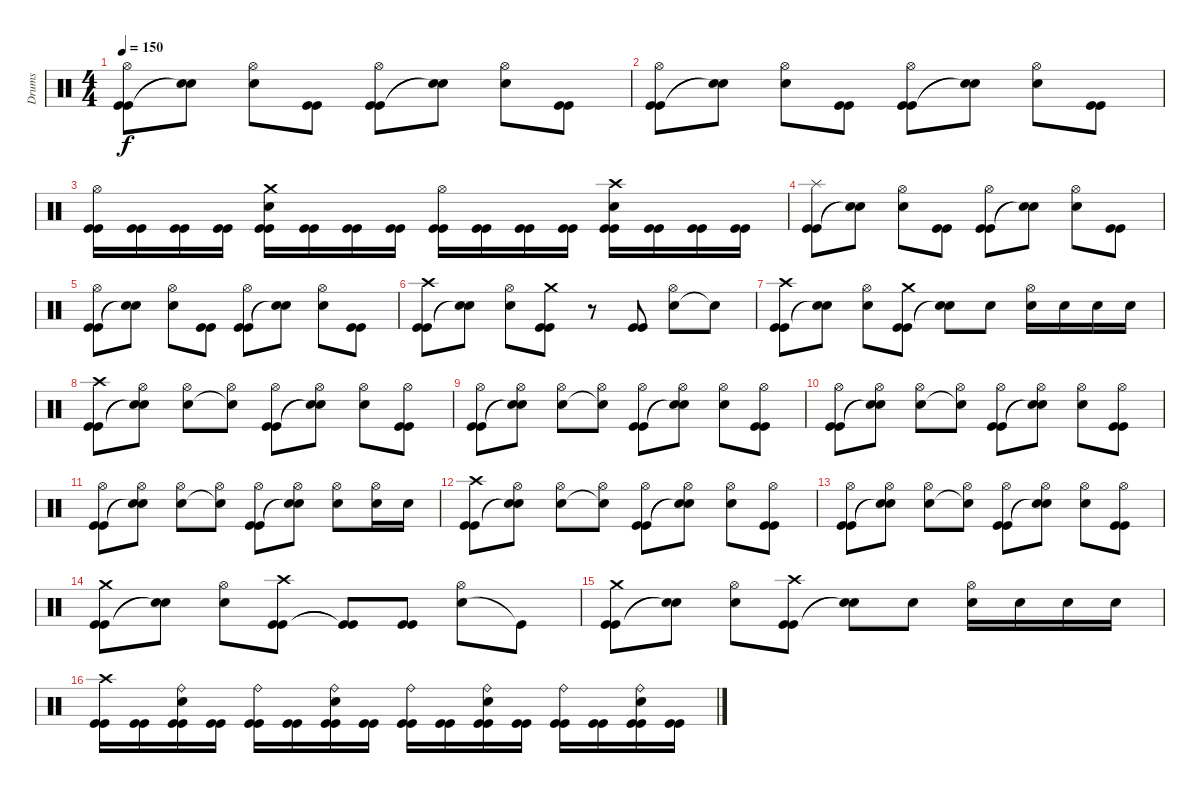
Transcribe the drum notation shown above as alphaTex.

\track ("Drums" "Drums") {instrument percussion}
\staff {score}
\articulation defaults
\ts (4 4)
\tempo 150
\clef neutral
\ks c
("Kick (hit)" "Kick (hit)" "Hi-Hat (open)").8{dy f} ("Snare (hit)"{t} "Snare (hit)"{t}).8 ("Snare (hit) 2" "Hi-Hat (open)").8 ("Kick (hit)" "Kick (hit)").8 ("Kick (hit)" "Kick (hit)" "Hi-Hat (open)").8 ("Snare (hit)"{t} "Snare (hit)"{t}).8 ("Snare (hit) 2" "Hi-Hat (open)").8 ("Kick (hit)" "Kick (hit)").8 |
("Kick (hit)" "Kick (hit)" "Hi-Hat (open)").8 ("Snare (hit)"{t} "Snare (hit)"{t}).8 ("Snare (hit) 2" "Hi-Hat (open)").8 ("Kick (hit)" "Kick (hit)").8 ("Kick (hit)" "Kick (hit)" "Hi-Hat (open)").8 ("Snare (hit)"{t} "Snare (hit)"{t}).8 ("Snare (hit) 2" "Hi-Hat (open)").8 ("Kick (hit)" "Kick (hit)").8 |
("Kick (hit)" "Kick (hit)" "Hi-Hat (open)").16 ("Kick (hit)" "Kick (hit)").16 ("Kick (hit)" "Kick (hit)").16 ("Kick (hit)" "Kick (hit)").16 ("Kick (hit)" "Kick (hit)" "Snare (hit) 2" "Crash medium (hit)").16 ("Kick (hit)" "Kick (hit)").16 ("Kick (hit)" "Kick (hit)").16 ("Kick (hit)" "Kick (hit)").16 ("Kick (hit)" "Kick (hit)" "Hi-Hat (open)").16 ("Kick (hit)" "Kick (hit)").16 ("Kick (hit)" "Kick (hit)").16 ("Kick (hit)" "Kick (hit)").16 ("Kick (hit)" "Kick (hit)" "Snare (hit) 2" "Crash high (hit)").16 ("Kick (hit)" "Kick (hit)").16 ("Kick (hit)" "Kick (hit)").16 ("Kick (hit)" "Kick (hit)").16 |
("Kick (hit)" "Kick (hit)" "Splash (hit)").8 ("Snare (hit)"{t} "Snare (hit)"{t}).8 ("Snare (hit) 2" "Hi-Hat (open)").8 ("Kick (hit)" "Kick (hit)").8 ("Kick (hit)" "Kick (hit)" "Hi-Hat (open)").8 ("Snare (hit)"{t} "Snare (hit)"{t}).8 ("Snare (hit) 2" "Hi-Hat (open)").8 ("Kick (hit)" "Kick (hit)").8 |
("Kick (hit)" "Kick (hit)" "Hi-Hat (open)").8 ("Snare (hit)"{t} "Snare (hit)"{t}).8 ("Snare (hit) 2" "Hi-Hat (open)").8 ("Kick (hit)" "Kick (hit)").8 ("Kick (hit)" "Kick (hit)" "Hi-Hat (open)").8 ("Snare (hit)"{t} "Snare (hit)"{t}).8 ("Snare (hit) 2" "Hi-Hat (open)").8 ("Kick (hit)" "Kick (hit)").8 |
("Kick (hit)" "Kick (hit)" "Crash high (hit)").8 ("Snare (hit)"{t} "Snare (hit)"{t}).8 ("Snare (hit) 2" "Hi-Hat (open)").8 ("Kick (hit)" "Kick (hit)" "Crash medium (hit)").8 r.8 ("Kick (hit)" "Kick (hit)").8 ("Snare (hit) 2" "Hi-Hat (open)").8 "Snare (hit)"{t}.8 |
("Kick (hit)" "Kick (hit)" "Crash high (hit)").8 ("Snare (hit)"{t} "Snare (hit)"{t}).8 ("Snare (hit) 2" "Hi-Hat (open)").8 ("Kick (hit)" "Kick (hit)" "Crash medium (hit)").8 ("Snare (hit)"{t} "Snare (hit)"{t}).8 "Snare (hit) 2".8 ("Snare (hit) 2" "Hi-Hat (open)").16 "Snare (hit) 2".16 "Snare (hit) 2".16 "Snare (hit) 2".16 |
("Kick (hit)" "Kick (hit)" "Crash high (hit)").8 ("Snare (hit)"{t} "Snare (hit)"{t} "Hi-Hat (open)").8 ("Snare (hit) 2" "Hi-Hat (open)").8 ("Snare (hit)"{t} "Hi-Hat (open)").8 ("Kick (hit)" "Kick (hit)" "Hi-Hat (open)").8 ("Snare (hit)"{t} "Snare (hit)"{t} "Hi-Hat (open)").8 ("Snare (hit) 2" "Hi-Hat (open)").8 ("Kick (hit)" "Kick (hit)" "Hi-Hat (open)").8 |
("Kick (hit)" "Kick (hit)" "Hi-Hat (open)").8 ("Snare (hit)"{t} "Snare (hit)"{t} "Hi-Hat (open)").8 ("Snare (hit) 2" "Hi-Hat (open)").8 ("Snare (hit)"{t} "Hi-Hat (open)").8 ("Kick (hit)" "Kick (hit)" "Hi-Hat (open)").8 ("Snare (hit)"{t} "Snare (hit)"{t} "Hi-Hat (open)").8 ("Snare (hit) 2" "Hi-Hat (open)").8 ("Kick (hit)" "Kick (hit)" "Hi-Hat (open)").8 |
("Kick (hit)" "Kick (hit)" "Hi-Hat (open)").8 ("Snare (hit)"{t} "Snare (hit)"{t} "Hi-Hat (open)").8 ("Snare (hit) 2" "Hi-Hat (open)").8 ("Snare (hit)"{t} "Hi-Hat (open)").8 ("Kick (hit)" "Kick (hit)" "Hi-Hat (open)").8 ("Snare (hit)"{t} "Snare (hit)"{t} "Hi-Hat (open)").8 ("Snare (hit) 2" "Hi-Hat (open)").8 ("Kick (hit)" "Kick (hit)" "Hi-Hat (open)").8 |
("Kick (hit)" "Kick (hit)" "Hi-Hat (open)").8 ("Snare (hit)"{t} "Snare (hit)"{t} "Hi-Hat (open)").8 ("Snare (hit) 2" "Hi-Hat (open)").8 ("Snare (hit)"{t} "Hi-Hat (open)").8 ("Kick (hit)" "Kick (hit)" "Hi-Hat (open)").8 ("Snare (hit)"{t} "Snare (hit)"{t} "Hi-Hat (open)").8 ("Snare (hit) 2" "Hi-Hat (open)").8 ("Snare (hit) 2" "Hi-Hat (open)").16 "Snare (hit) 2".16 |
("Kick (hit)" "Kick (hit)" "Crash high (hit)").8 ("Snare (hit)"{t} "Snare (hit)"{t} "Hi-Hat (open)").8 ("Snare (hit) 2" "Hi-Hat (open)").8 ("Snare (hit)"{t} "Hi-Hat (open)").8 ("Kick (hit)" "Kick (hit)" "Hi-Hat (open)").8 ("Snare (hit)"{t} "Snare (hit)"{t} "Hi-Hat (open)").8 ("Snare (hit) 2" "Hi-Hat (open)").8 ("Kick (hit)" "Kick (hit)" "Hi-Hat (open)").8 |
("Kick (hit)" "Kick (hit)" "Hi-Hat (open)").8 ("Snare (hit)"{t} "Snare (hit)"{t} "Hi-Hat (open)").8 ("Snare (hit) 2" "Hi-Hat (open)").8 ("Snare (hit)"{t} "Hi-Hat (open)").8 ("Kick (hit)" "Kick (hit)" "Hi-Hat (open)").8 ("Snare (hit)"{t} "Snare (hit)"{t} "Hi-Hat (open)").8 ("Snare (hit) 2" "Hi-Hat (open)").8 ("Kick (hit)" "Kick (hit)" "Hi-Hat (open)").8 |
("Kick (hit)" "Kick (hit)" "Crash medium (hit)").8 ("Snare (hit)"{t} "Snare (hit)"{t}).8 ("Snare (hit) 2" "Hi-Hat (open)").8 ("Kick (hit)" "Kick (hit)" "Crash high (hit)").8 ("Kick (hit)"{t} "Kick (hit)"{t}).8 ("Kick (hit)" "Kick (hit)").8 ("Snare (hit) 2" "Hi-Hat (open)").8 "Kick (hit)"{t}.8 |
("Kick (hit)" "Kick (hit)" "Crash medium (hit)").8 ("Snare (hit)"{t} "Snare (hit)"{t}).8 ("Snare (hit) 2" "Hi-Hat (open)").8 ("Kick (hit)" "Kick (hit)" "Crash high (hit)").8 ("Snare (hit)"{t} "Snare (hit)"{t}).8 "Snare (hit) 2".8 ("Snare (hit) 2" "Hi-Hat (open)").16 "Snare (hit) 2".16 "Snare (hit) 2".16 "Snare (hit) 2".16 |
("Kick (hit)" "Kick (hit)" "Crash high (hit)").16 ("Kick (hit)" "Kick (hit)").16 ("Kick (hit)" "Kick (hit)" "Snare (hit) 2" "Ride (bell)").16 ("Kick (hit)" "Kick (hit)").16 ("Kick (hit)" "Kick (hit)" "Ride (bell)").16 ("Kick (hit)" "Kick (hit)").16 ("Kick (hit)" "Kick (hit)" "Snare (hit) 2" "Ride (bell)").16 ("Kick (hit)" "Kick (hit)").16 ("Kick (hit)" "Kick (hit)" "Ride (bell)").16 ("Kick (hit)" "Kick (hit)").16 ("Kick (hit)" "Kick (hit)" "Snare (hit) 2" "Ride (bell)").16 ("Kick (hit)" "Kick (hit)").16 ("Kick (hit)" "Kick (hit)" "Ride (bell)").16 ("Kick (hit)" "Kick (hit)").16 ("Kick (hit)" "Kick (hit)" "Snare (hit) 2" "Ride (bell)").16 ("Kick (hit)" "Kick (hit)").16
